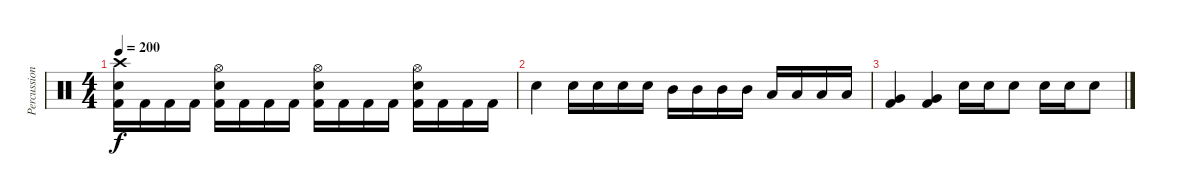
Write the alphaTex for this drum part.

\track ("Percussion" "Percussion") {instrument percussion}
\staff {score}
\articulation defaults
\ts (4 4)
\tempo 200
\clef neutral
\ks c
("Crash high (hit)" "Snare (hit) 2" "Kick (hit) 2").16{dy f} "Kick (hit) 2".16 "Kick (hit) 2".16 "Kick (hit) 2".16 ("Hi-Hat (open)" "Snare (hit) 2" "Kick (hit) 2").16 "Kick (hit) 2".16 "Kick (hit) 2".16 "Kick (hit) 2".16 ("Hi-Hat (open)" "Snare (hit) 2" "Kick (hit) 2").16 "Kick (hit) 2".16 "Kick (hit) 2".16 "Kick (hit) 2".16 ("Hi-Hat (open)" "Snare (hit) 2" "Kick (hit) 2").16 "Kick (hit) 2".16 "Kick (hit) 2".16 "Kick (hit) 2".16 |
"Snare (hit) 2".4 "Snare (hit) 2".16 "Snare (hit) 2".16 "Snare (hit) 2".16 "Snare (hit) 2".16 "Mid Tom (hit)".16 "Mid Tom (hit)".16 "Mid Tom (hit)".16 "Mid Tom (hit)".16 "Low Tom (hit)".16 "Low Tom (hit)".16 "Low Tom (hit)".16 "Low Tom (hit)".16 |
("Very Low Tom (hit)" "Kick (hit) 2").4 ("Very Low Tom (hit)" "Kick (hit) 2").4 "Snare (hit) 2".16 "Snare (hit) 2".16 "Snare (hit) 2".8 "Snare (hit) 2".16 "Snare (hit) 2".16 "Snare (hit) 2".8
